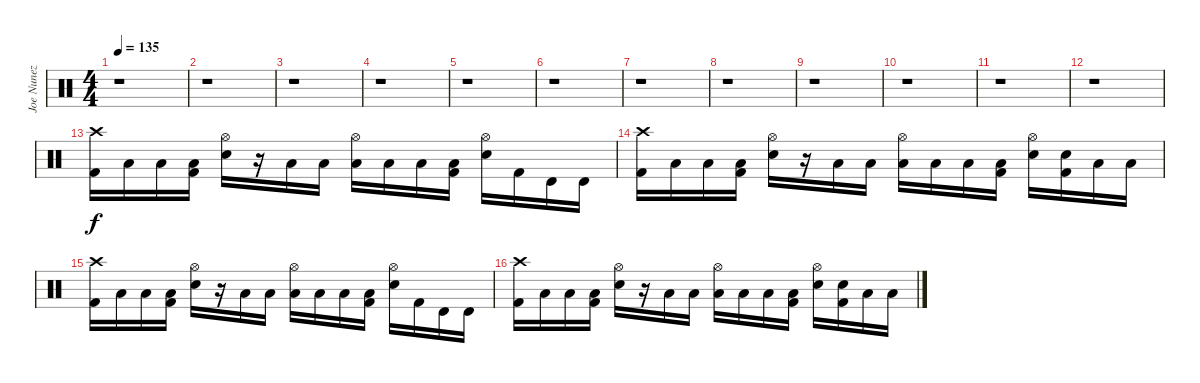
\track ("Joe Nunez" "Joe Nunez") {instrument percussion}
\staff {score}
\articulation defaults
\ts (4 4)
\tempo 135
\clef neutral
\ks c
r.1{dy f} |
r.1 |
r.1 |
r.1 |
r.1 |
r.1 |
r.1 |
r.1 |
r.1 |
r.1 |
r.1 |
r.1 |
("Crash high (hit)" "Kick (hit) 2").16 "Low Tom (hit)".16 "Low Tom (hit)".16 ("Low Tom (hit)" "Kick (hit) 2").16 ("Hi-Hat (open)" "Electric Snare (hit)").16 r.16 "Low Tom (hit)".16 "Low Tom (hit)".16 ("Hi-Hat (open)" "Low Tom (hit)").16 "Low Tom (hit)".16 "Low Tom (hit)".16 ("Low Tom (hit)" "Kick (hit) 2").16 ("Hi-Hat (open)" "Electric Snare (hit)").16 "Kick (hit) 2".16 "Timbale high (hit)".16 "Timbale high (hit)".16 |
("Crash high (hit)" "Kick (hit) 2").16 "Low Tom (hit)".16 "Low Tom (hit)".16 ("Low Tom (hit)" "Kick (hit) 2").16 ("Hi-Hat (open)" "Electric Snare (hit)").16 r.16 "Low Tom (hit)".16 "Low Tom (hit)".16 ("Hi-Hat (open)" "Low Tom (hit)").16 "Low Tom (hit)".16 "Low Tom (hit)".16 ("Low Tom (hit)" "Kick (hit) 2").16 ("Hi-Hat (open)" "Electric Snare (hit)").16 ("Electric Snare (hit)" "Kick (hit) 2").16 "Low Tom (hit)".16 "Low Tom (hit)".16 |
("Crash high (hit)" "Kick (hit) 2").16 "Low Tom (hit)".16 "Low Tom (hit)".16 ("Low Tom (hit)" "Kick (hit) 2").16 ("Hi-Hat (open)" "Electric Snare (hit)").16 r.16 "Low Tom (hit)".16 "Low Tom (hit)".16 ("Hi-Hat (open)" "Low Tom (hit)").16 "Low Tom (hit)".16 "Low Tom (hit)".16 ("Low Tom (hit)" "Kick (hit) 2").16 ("Hi-Hat (open)" "Electric Snare (hit)").16 "Kick (hit) 2".16 "Timbale high (hit)".16 "Timbale high (hit)".16 |
("Crash high (hit)" "Kick (hit) 2").16 "Low Tom (hit)".16 "Low Tom (hit)".16 ("Low Tom (hit)" "Kick (hit) 2").16 ("Hi-Hat (open)" "Electric Snare (hit)").16 r.16 "Low Tom (hit)".16 "Low Tom (hit)".16 ("Hi-Hat (open)" "Low Tom (hit)").16 "Low Tom (hit)".16 "Low Tom (hit)".16 ("Low Tom (hit)" "Kick (hit) 2").16 ("Hi-Hat (open)" "Electric Snare (hit)").16 ("Electric Snare (hit)" "Kick (hit) 2").16 "Low Tom (hit)".16 "Low Tom (hit)".16
